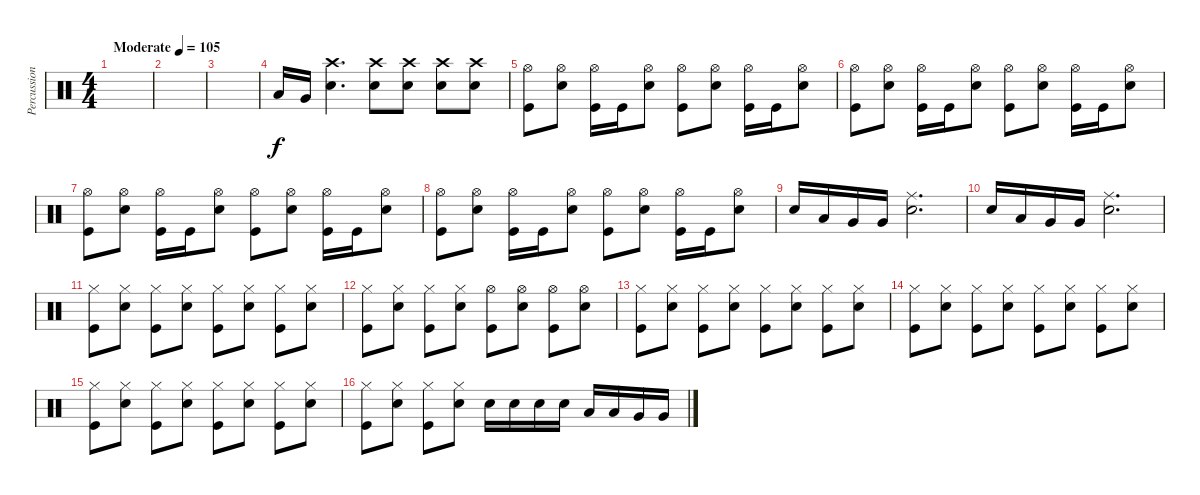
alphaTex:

\track ("Percussions" "Percussion") {instrument percussion}
\staff {score}
\articulation defaults
\ts (4 4)
\tempo (105 "Moderate")
\clef neutral
\ks c
|
|
|
"Low Tom (hit)".16 "Very Low Tom (hit)".16 ("Crash high (hit)" "Electric Snare (hit)").4{d} ("Crash high (hit)" "Electric Snare (hit)").8 ("Crash high (hit)" "Electric Snare (hit)").8 ("Crash high (hit)" "Electric Snare (hit)").8 ("Crash high (hit)" "Electric Snare (hit)").8 |
("Hi-Hat (open)" "Kick (hit)").8 ("Hi-Hat (open)" "Electric Snare (hit)").8 ("Hi-Hat (open)" "Kick (hit)").16 "Kick (hit)".16 ("Hi-Hat (open)" "Electric Snare (hit)").8 ("Hi-Hat (open)" "Kick (hit)").8 ("Hi-Hat (open)" "Electric Snare (hit)").8 ("Hi-Hat (open)" "Kick (hit)").16 "Kick (hit)".16 ("Hi-Hat (open)" "Electric Snare (hit)").8 |
("Hi-Hat (open)" "Kick (hit)").8 ("Hi-Hat (open)" "Electric Snare (hit)").8 ("Hi-Hat (open)" "Kick (hit)").16 "Kick (hit)".16 ("Hi-Hat (open)" "Electric Snare (hit)").8 ("Hi-Hat (open)" "Kick (hit)").8 ("Hi-Hat (open)" "Electric Snare (hit)").8 ("Hi-Hat (open)" "Kick (hit)").16 "Kick (hit)".16 ("Hi-Hat (open)" "Electric Snare (hit)").8 |
("Hi-Hat (open)" "Kick (hit)").8 ("Hi-Hat (open)" "Electric Snare (hit)").8 ("Hi-Hat (open)" "Kick (hit)").16 "Kick (hit)".16 ("Hi-Hat (open)" "Electric Snare (hit)").8 ("Hi-Hat (open)" "Kick (hit)").8 ("Hi-Hat (open)" "Electric Snare (hit)").8 ("Hi-Hat (open)" "Kick (hit)").16 "Kick (hit)".16 ("Hi-Hat (open)" "Electric Snare (hit)").8 |
("Hi-Hat (open)" "Kick (hit)").8 ("Hi-Hat (open)" "Electric Snare (hit)").8 ("Hi-Hat (open)" "Kick (hit)").16 "Kick (hit)".16 ("Hi-Hat (open)" "Electric Snare (hit)").8 ("Hi-Hat (open)" "Kick (hit)").8 ("Hi-Hat (open)" "Electric Snare (hit)").8 ("Hi-Hat (open)" "Kick (hit)").16 "Kick (hit)".16 ("Hi-Hat (open)" "Electric Snare (hit)").8 |
"Electric Snare (hit)".16 "Low Tom (hit)".16 "Very Low Tom (hit)".16 "Very Low Tom (hit)".16 ("Ride (middle)" "Electric Snare (hit)").2{d} |
"Electric Snare (hit)".16 "Low Tom (hit)".16 "Very Low Tom (hit)".16 "Very Low Tom (hit)".16 ("Ride (middle)" "Electric Snare (hit)").2{d} |
("Hi-Hat (closed)" "Kick (hit)").8 ("Hi-Hat (closed)" "Electric Snare (hit)").8 ("Hi-Hat (closed)" "Kick (hit)").8 ("Hi-Hat (closed)" "Electric Snare (hit)").8 ("Hi-Hat (closed)" "Kick (hit)").8 ("Hi-Hat (closed)" "Electric Snare (hit)").8 ("Hi-Hat (closed)" "Kick (hit)").8 ("Hi-Hat (closed)" "Electric Snare (hit)").8 |
("Hi-Hat (closed)" "Kick (hit)").8 ("Hi-Hat (closed)" "Electric Snare (hit)").8 ("Hi-Hat (closed)" "Kick (hit)").8 ("Hi-Hat (closed)" "Electric Snare (hit)").8 ("Hi-Hat (open)" "Kick (hit)").8 ("Hi-Hat (open)" "Electric Snare (hit)").8 ("Hi-Hat (open)" "Kick (hit)").8 ("Hi-Hat (open)" "Electric Snare (hit)").8 |
("Hi-Hat (closed)" "Kick (hit)").8 ("Hi-Hat (closed)" "Electric Snare (hit)").8 ("Hi-Hat (closed)" "Kick (hit)").8 ("Hi-Hat (closed)" "Electric Snare (hit)").8 ("Hi-Hat (closed)" "Kick (hit)").8 ("Hi-Hat (closed)" "Electric Snare (hit)").8 ("Hi-Hat (closed)" "Kick (hit)").8 ("Hi-Hat (closed)" "Electric Snare (hit)").8 |
("Hi-Hat (closed)" "Kick (hit)").8 ("Hi-Hat (closed)" "Electric Snare (hit)").8 ("Hi-Hat (closed)" "Kick (hit)").8 ("Hi-Hat (closed)" "Electric Snare (hit)").8 ("Hi-Hat (closed)" "Kick (hit)").8 ("Hi-Hat (closed)" "Electric Snare (hit)").8 ("Hi-Hat (closed)" "Kick (hit)").8 ("Hi-Hat (closed)" "Electric Snare (hit)").8 |
("Hi-Hat (closed)" "Kick (hit)").8 ("Hi-Hat (closed)" "Electric Snare (hit)").8 ("Hi-Hat (closed)" "Kick (hit)").8 ("Hi-Hat (closed)" "Electric Snare (hit)").8 ("Hi-Hat (closed)" "Kick (hit)").8 ("Hi-Hat (closed)" "Electric Snare (hit)").8 ("Hi-Hat (closed)" "Kick (hit)").8 ("Hi-Hat (closed)" "Electric Snare (hit)").8 |
("Hi-Hat (closed)" "Kick (hit)").8 ("Hi-Hat (closed)" "Electric Snare (hit)").8 ("Hi-Hat (closed)" "Kick (hit)").8 ("Hi-Hat (closed)" "Electric Snare (hit)").8 "Electric Snare (hit)".16 "Electric Snare (hit)".16 "Electric Snare (hit)".16 "Electric Snare (hit)".16 "Low Tom (hit)".16 "Low Tom (hit)".16 "Very Low Tom (hit)".16 "Very Low Tom (hit)".16
